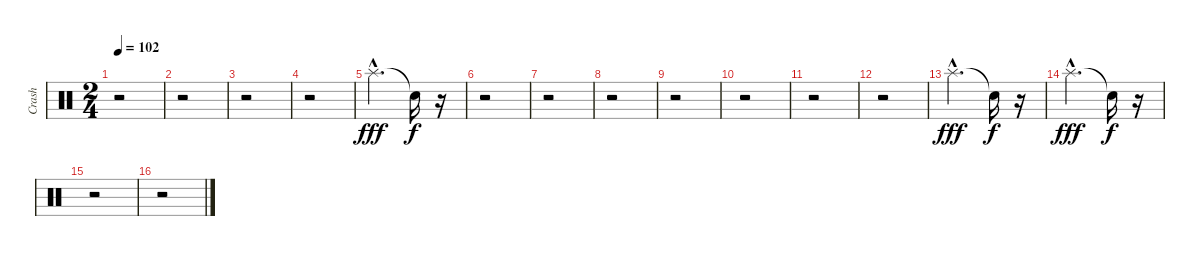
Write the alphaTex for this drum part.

\track ("Crash" "Crash") {instrument percussion}
\staff {score}
\articulation defaults
\ts (2 4)
\tempo 102
\clef neutral
\ks c
r.2{dy f} |
r.2 |
r.2 |
r.2 |
"Splash (hit)"{hac}.4{d dy fff} "Snare (hit)"{t}.16{dy f} r.16 |
r.2 |
r.2 |
r.2 |
r.2 |
r.2 |
r.2 |
r.2 |
"Splash (hit)"{hac}.4{d dy fff} "Snare (hit)"{t}.16{dy f} r.16 |
"Splash (hit)"{hac}.4{d dy fff} "Snare (hit)"{t}.16{dy f} r.16 |
r.2 |
r.2
